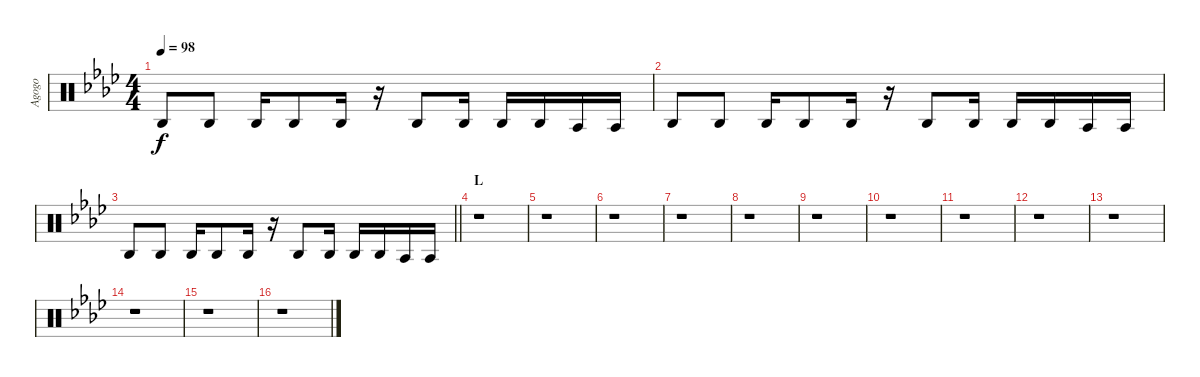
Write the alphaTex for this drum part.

\track ("Agogo" "Agogo") {instrument percussion}
\staff {score}
\articulation defaults
\ts (4 4)
\tempo 98
\clef neutral
\ks ab "Agogo high (hit)".8{dy f} "Agogo high (hit)".8 "Agogo high (hit)".16 "Agogo high (hit)".8 "Agogo high (hit)".16
r.16 "Agogo high (hit)".8 "Agogo high (hit)".16 "Agogo high (hit)".16 "Agogo high (hit)".16 "Agogo tow (hit)".16 "Agogo tow (hit)".16 |
"Agogo high (hit)".8 "Agogo high (hit)".8 "Agogo high (hit)".16 "Agogo high (hit)".8 "Agogo high (hit)".16 r.16 "Agogo high (hit)".8 "Agogo high (hit)".16 "Agogo high (hit)".16 "Agogo high (hit)".16 "Agogo tow (hit)".16 "Agogo tow (hit)".16 |
\barLineRight lightlight "Agogo high (hit)".8 "Agogo high (hit)".8 "Agogo high (hit)".16 "Agogo high (hit)".8 "Agogo high (hit)".16
r.16 "Agogo high (hit)".8 "Agogo high (hit)".16 "Agogo high (hit)".16 "Agogo high (hit)".16 "Agogo tow (hit)".16 "Agogo tow (hit)".16 |
\section ("" "L")
r.1 |
r.1 |
r.1 |
r.1 |
r.1 |
r.1 |
r.1 |
r.1 |
r.1 |
r.1 |
r.1 |
r.1 |
r.1
